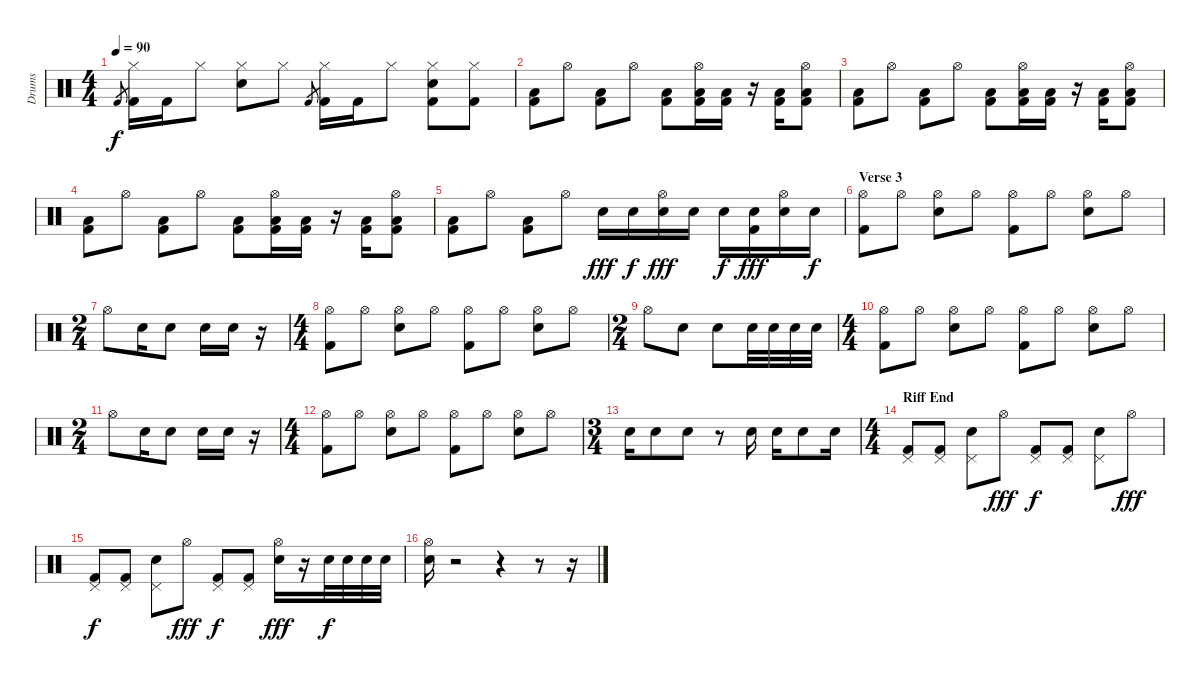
\track ("Drums" "Drums") {instrument percussion}
\staff {score}
\articulation defaults
\ts (4 4)
\tempo 90
\clef neutral
\ks c "Kick (hit) 2".8{gr dy f}
("Hi-Hat (closed)" "Kick (hit) 2").16 "Kick (hit) 2".16 "Hi-Hat (closed)".8 ("Hi-Hat (closed)" "Electric Snare (hit)").8 "Hi-Hat (closed)".8 "Kick (hit) 2".8{gr} ("Hi-Hat (closed)" "Kick (hit) 2").16 "Kick (hit) 2".16 "Hi-Hat (closed)".8 ("Hi-Hat (closed)" "Electric Snare (hit)" "Kick (hit) 2").8 ("Hi-Hat (closed)" "Kick (hit) 2").8 |
("Low Floor Tom (hit)" "Kick (hit) 2").8 "Hi-Hat (open)".8 ("Low Floor Tom (hit)" "Kick (hit) 2").8 "Hi-Hat (open)".8 ("Low Floor Tom (hit)" "Kick (hit) 2").8 ("Hi-Hat (open)" "Low Floor Tom (hit)" "Kick (hit) 2").16 ("Low Floor Tom (hit)" "Kick (hit) 2").16 r.16 ("Low Floor Tom (hit)" "Kick (hit) 2").16 ("Hi-Hat (open)" "Low Floor Tom (hit)" "Kick (hit) 2").8 |
("Low Floor Tom (hit)" "Kick (hit) 2").8 "Hi-Hat (open)".8 ("Low Floor Tom (hit)" "Kick (hit) 2").8 "Hi-Hat (open)".8 ("Low Floor Tom (hit)" "Kick (hit) 2").8 ("Hi-Hat (open)" "Low Floor Tom (hit)" "Kick (hit) 2").16 ("Low Floor Tom (hit)" "Kick (hit) 2").16 r.16 ("Low Floor Tom (hit)" "Kick (hit) 2").16 ("Hi-Hat (open)" "Low Floor Tom (hit)" "Kick (hit) 2").8 |
("Low Floor Tom (hit)" "Kick (hit) 2").8 "Hi-Hat (open)".8 ("Low Floor Tom (hit)" "Kick (hit) 2").8 "Hi-Hat (open)".8 ("Low Floor Tom (hit)" "Kick (hit) 2").8 ("Hi-Hat (open)" "Low Floor Tom (hit)" "Kick (hit) 2").16 ("Low Floor Tom (hit)" "Kick (hit) 2").16 r.16 ("Low Floor Tom (hit)" "Kick (hit) 2").16 ("Hi-Hat (open)" "Low Floor Tom (hit)" "Kick (hit) 2").8 |
("Low Floor Tom (hit)" "Kick (hit) 2").8 "Hi-Hat (open)".8 ("Low Floor Tom (hit)" "Kick (hit) 2").8 "Hi-Hat (open)".8 "Electric Snare (hit)".16{dy fff} "Electric Snare (hit)".16{dy f} ("Hi-Hat (open)" "Electric Snare (hit)").16{dy fff} "Electric Snare (hit)".16 "Electric Snare (hit)".16{dy f} ("Electric Snare (hit)" "Kick (hit) 2").16{dy fff} ("Hi-Hat (open)" "Electric Snare (hit)").16 "Electric Snare (hit)".16{dy f} |
\section ("" "Verse 3")
("Hi-Hat (open)" "Kick (hit) 2").8 "Hi-Hat (open)".8 ("Hi-Hat (open)" "Electric Snare (hit)").8 "Hi-Hat (open)".8 ("Hi-Hat (open)" "Kick (hit) 2").8 "Hi-Hat (open)".8 ("Hi-Hat (open)" "Electric Snare (hit)").8 "Hi-Hat (open)".8 |
\ts (2 4)
"Hi-Hat (open)".8 "Electric Snare (hit)".16 "Electric Snare (hit)".8 "Electric Snare (hit)".16 "Electric Snare (hit)".16 r.16 |
\ts (4 4)
("Hi-Hat (open)" "Kick (hit) 2").8 "Hi-Hat (open)".8 ("Hi-Hat (open)" "Electric Snare (hit)").8 "Hi-Hat (open)".8 ("Hi-Hat (open)" "Kick (hit) 2").8 "Hi-Hat (open)".8 ("Hi-Hat (open)" "Electric Snare (hit)").8 "Hi-Hat (open)".8 |
\ts (2 4)
"Hi-Hat (open)".8 "Electric Snare (hit)".8 "Electric Snare (hit)".8 "Electric Snare (hit)".32 "Electric Snare (hit)".32 "Electric Snare (hit)".32 "Electric Snare (hit)".32 |
\ts (4 4)
("Hi-Hat (open)" "Kick (hit) 2").8 "Hi-Hat (open)".8 ("Hi-Hat (open)" "Electric Snare (hit)").8 "Hi-Hat (open)".8 ("Hi-Hat (open)" "Kick (hit) 2").8 "Hi-Hat (open)".8 ("Hi-Hat (open)" "Electric Snare (hit)").8 "Hi-Hat (open)".8 |
\ts (2 4)
"Hi-Hat (open)".8 "Electric Snare (hit)".16 "Electric Snare (hit)".8 "Electric Snare (hit)".16 "Electric Snare (hit)".16 r.16 |
\ts (4 4)
("Hi-Hat (open)" "Kick (hit) 2").8 "Hi-Hat (open)".8 ("Hi-Hat (open)" "Electric Snare (hit)").8 "Hi-Hat (open)".8 ("Hi-Hat (open)" "Kick (hit) 2").8 "Hi-Hat (open)".8 ("Hi-Hat (open)" "Electric Snare (hit)").8 "Hi-Hat (open)".8 |
\ts (3 4)
"Electric Snare (hit)".16 "Electric Snare (hit)".8 "Electric Snare (hit)".8 r.8 "Electric Snare (hit)".16 "Electric Snare (hit)".16 "Electric Snare (hit)".8 "Electric Snare (hit)".16 |
\ts (4 4)
\section ("" "Riff End")
("Pedal Hi-Hat (hit)" "Kick (hit) 2").8 ("Pedal Hi-Hat (hit)" "Kick (hit) 2").8 ("Pedal Hi-Hat (hit)" "Electric Snare (hit)").8 "Hi-Hat (open)".8{dy fff} ("Pedal Hi-Hat (hit)" "Kick (hit) 2").8{dy f} ("Pedal Hi-Hat (hit)" "Kick (hit) 2").8 ("Pedal Hi-Hat (hit)" "Electric Snare (hit)").8 "Hi-Hat (open)".8{dy fff} |
("Pedal Hi-Hat (hit)" "Kick (hit) 2").8{dy f} ("Pedal Hi-Hat (hit)" "Kick (hit) 2").8 ("Pedal Hi-Hat (hit)" "Electric Snare (hit)").8 "Hi-Hat (open)".8{dy fff} ("Pedal Hi-Hat (hit)" "Kick (hit) 2").8{dy f} ("Pedal Hi-Hat (hit)" "Kick (hit) 2").8 ("Hi-Hat (open)" "Electric Snare (hit)").16{dy fff} r.16 "Electric Snare (hit)".32{dy f} "Electric Snare (hit)".32 "Electric Snare (hit)".32 "Electric Snare (hit)".32 |
("Hi-Hat (open)" "Electric Snare (hit)").16 r.2 r.4 r.8 r.16
